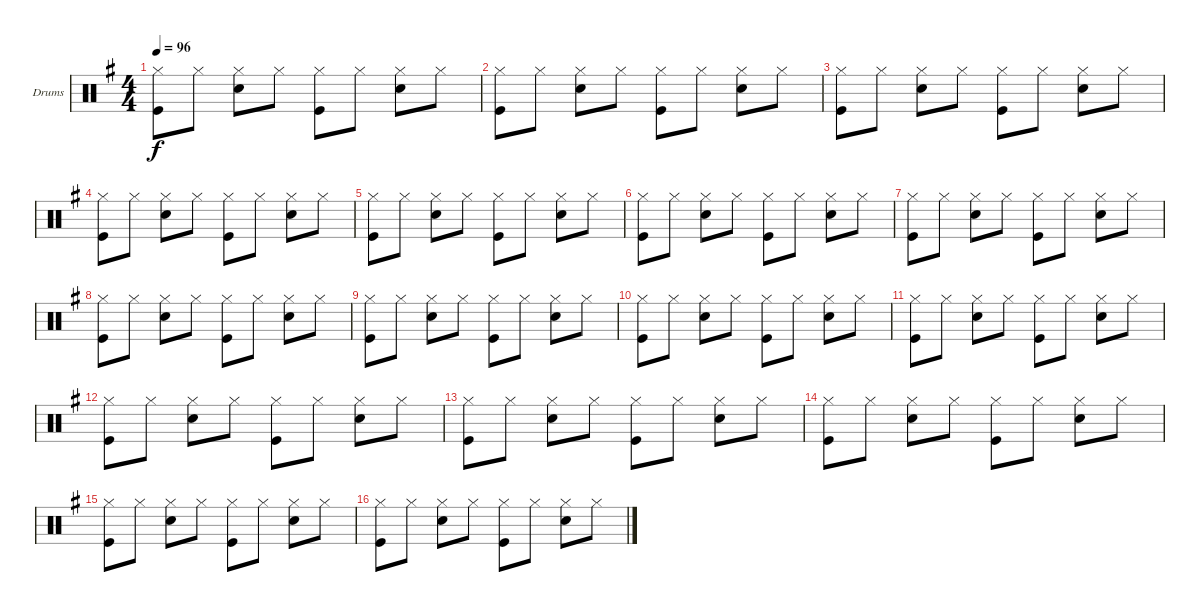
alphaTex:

\bracketExtendMode groupsimilarinstruments
\firstSystemTrackNameOrientation horizontal
\otherSystemsTrackNameOrientation horizontal
\track ("Drumkit" "Drums") {instrument percussion}
\staff {score}
\articulation defaults
\ts (4 4)
\tempo 96
\clef neutral
\ks eminor
("Hi-Hat (closed)" "Kick (hit)").8{dy f} "Hi-Hat (closed)".8 ("Hi-Hat (closed)" "Snare (hit) 2").8 "Hi-Hat (closed)".8 ("Hi-Hat (closed)" "Kick (hit)").8 "Hi-Hat (closed)".8 ("Hi-Hat (closed)" "Snare (hit) 2").8 "Hi-Hat (closed)".8 |
("Hi-Hat (closed)" "Kick (hit)").8 "Hi-Hat (closed)".8 ("Hi-Hat (closed)" "Snare (hit) 2").8 "Hi-Hat (closed)".8 ("Hi-Hat (closed)" "Kick (hit)").8 "Hi-Hat (closed)".8 ("Hi-Hat (closed)" "Snare (hit) 2").8 "Hi-Hat (closed)".8 |
("Hi-Hat (closed)" "Kick (hit)").8 "Hi-Hat (closed)".8 ("Hi-Hat (closed)" "Snare (hit) 2").8 "Hi-Hat (closed)".8 ("Hi-Hat (closed)" "Kick (hit)").8 "Hi-Hat (closed)".8 ("Hi-Hat (closed)" "Snare (hit) 2").8 "Hi-Hat (closed)".8 |
("Hi-Hat (closed)" "Kick (hit)").8 "Hi-Hat (closed)".8 ("Hi-Hat (closed)" "Snare (hit) 2").8 "Hi-Hat (closed)".8 ("Hi-Hat (closed)" "Kick (hit)").8 "Hi-Hat (closed)".8 ("Hi-Hat (closed)" "Snare (hit) 2").8 "Hi-Hat (closed)".8 |
("Hi-Hat (closed)" "Kick (hit)").8 "Hi-Hat (closed)".8 ("Hi-Hat (closed)" "Snare (hit) 2").8 "Hi-Hat (closed)".8 ("Hi-Hat (closed)" "Kick (hit)").8 "Hi-Hat (closed)".8 ("Hi-Hat (closed)" "Snare (hit) 2").8 "Hi-Hat (closed)".8 |
("Hi-Hat (closed)" "Kick (hit)").8 "Hi-Hat (closed)".8 ("Hi-Hat (closed)" "Snare (hit) 2").8 "Hi-Hat (closed)".8 ("Hi-Hat (closed)" "Kick (hit)").8 "Hi-Hat (closed)".8 ("Hi-Hat (closed)" "Snare (hit) 2").8 "Hi-Hat (closed)".8 |
("Hi-Hat (closed)" "Kick (hit)").8 "Hi-Hat (closed)".8 ("Hi-Hat (closed)" "Snare (hit) 2").8 "Hi-Hat (closed)".8 ("Hi-Hat (closed)" "Kick (hit)").8 "Hi-Hat (closed)".8 ("Hi-Hat (closed)" "Snare (hit) 2").8 "Hi-Hat (closed)".8 |
("Hi-Hat (closed)" "Kick (hit)").8 "Hi-Hat (closed)".8 ("Hi-Hat (closed)" "Snare (hit) 2").8 "Hi-Hat (closed)".8 ("Hi-Hat (closed)" "Kick (hit)").8 "Hi-Hat (closed)".8 ("Hi-Hat (closed)" "Snare (hit) 2").8 "Hi-Hat (closed)".8 |
("Hi-Hat (closed)" "Kick (hit)").8 "Hi-Hat (closed)".8 ("Hi-Hat (closed)" "Snare (hit) 2").8 "Hi-Hat (closed)".8 ("Hi-Hat (closed)" "Kick (hit)").8 "Hi-Hat (closed)".8 ("Hi-Hat (closed)" "Snare (hit) 2").8 "Hi-Hat (closed)".8 |
("Hi-Hat (closed)" "Kick (hit)").8 "Hi-Hat (closed)".8 ("Hi-Hat (closed)" "Snare (hit) 2").8 "Hi-Hat (closed)".8 ("Hi-Hat (closed)" "Kick (hit)").8 "Hi-Hat (closed)".8 ("Hi-Hat (closed)" "Snare (hit) 2").8 "Hi-Hat (closed)".8 |
("Hi-Hat (closed)" "Kick (hit)").8 "Hi-Hat (closed)".8 ("Hi-Hat (closed)" "Snare (hit) 2").8 "Hi-Hat (closed)".8 ("Hi-Hat (closed)" "Kick (hit)").8 "Hi-Hat (closed)".8 ("Hi-Hat (closed)" "Snare (hit) 2").8 "Hi-Hat (closed)".8 |
("Hi-Hat (closed)" "Kick (hit)").8 "Hi-Hat (closed)".8 ("Hi-Hat (closed)" "Snare (hit) 2").8 "Hi-Hat (closed)".8 ("Hi-Hat (closed)" "Kick (hit)").8 "Hi-Hat (closed)".8 ("Hi-Hat (closed)" "Snare (hit) 2").8 "Hi-Hat (closed)".8 |
("Hi-Hat (closed)" "Kick (hit)").8 "Hi-Hat (closed)".8 ("Hi-Hat (closed)" "Snare (hit) 2").8 "Hi-Hat (closed)".8 ("Hi-Hat (closed)" "Kick (hit)").8 "Hi-Hat (closed)".8 ("Hi-Hat (closed)" "Snare (hit) 2").8 "Hi-Hat (closed)".8 |
("Hi-Hat (closed)" "Kick (hit)").8 "Hi-Hat (closed)".8 ("Hi-Hat (closed)" "Snare (hit) 2").8 "Hi-Hat (closed)".8 ("Hi-Hat (closed)" "Kick (hit)").8 "Hi-Hat (closed)".8 ("Hi-Hat (closed)" "Snare (hit) 2").8 "Hi-Hat (closed)".8 |
("Hi-Hat (closed)" "Kick (hit)").8 "Hi-Hat (closed)".8 ("Hi-Hat (closed)" "Snare (hit) 2").8 "Hi-Hat (closed)".8 ("Hi-Hat (closed)" "Kick (hit)").8 "Hi-Hat (closed)".8 ("Hi-Hat (closed)" "Snare (hit) 2").8 "Hi-Hat (closed)".8 |
("Hi-Hat (closed)" "Kick (hit)").8 "Hi-Hat (closed)".8 ("Hi-Hat (closed)" "Snare (hit) 2").8 "Hi-Hat (closed)".8 ("Hi-Hat (closed)" "Kick (hit)").8 "Hi-Hat (closed)".8 ("Hi-Hat (closed)" "Snare (hit) 2").8 "Hi-Hat (closed)".8
